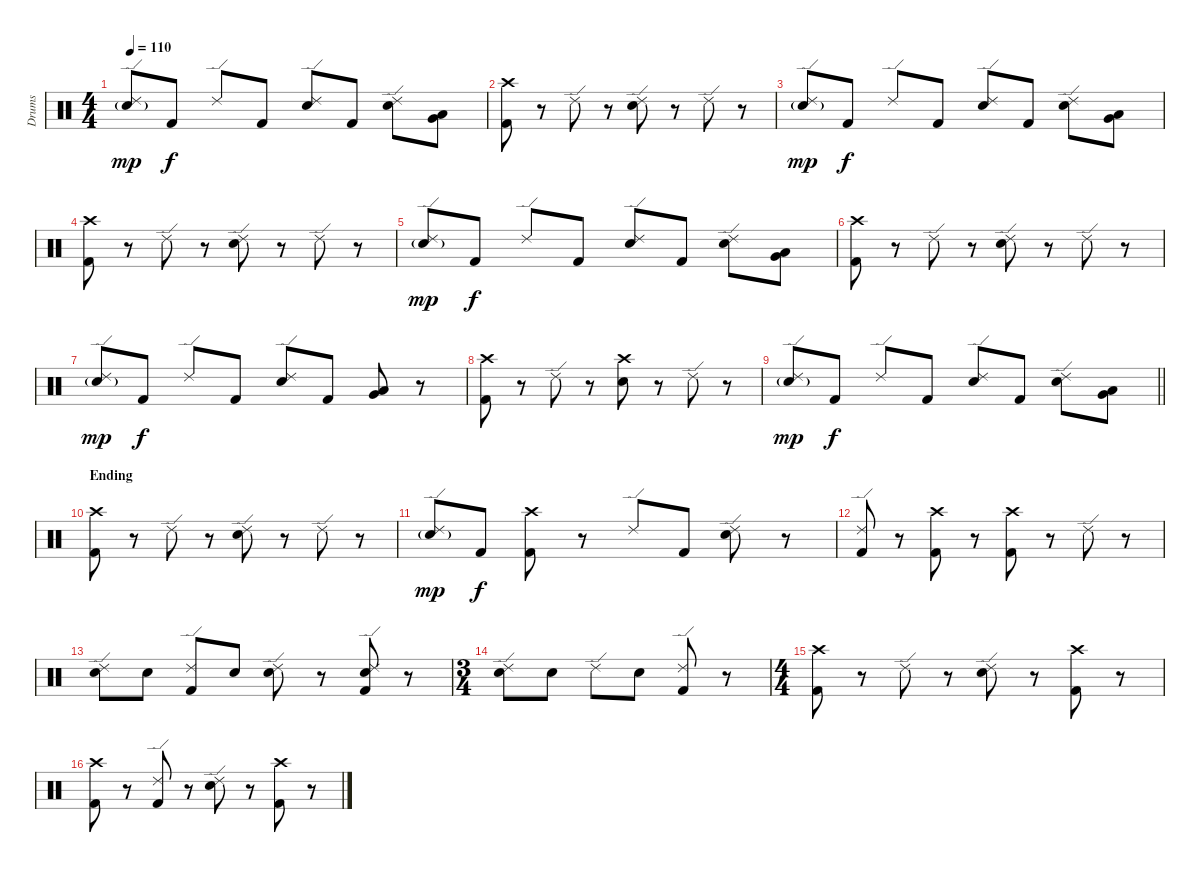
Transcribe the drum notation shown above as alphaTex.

\track ("Drums" "Drums") {instrument percussion}
\staff {score}
\articulation defaults
\ts (4 4)
\tempo 110
\clef neutral
\ks c
("Ride (edge) 2" "Snare (hit) 2"{g}).8{dy mp} "Kick (hit) 2".8{dy f} "Ride (edge) 2".8 "Kick (hit) 2".8 ("Ride (edge) 2" "Snare (hit) 2").8 "Kick (hit) 2".8 ("Ride (edge) 2" "Snare (hit) 2").8 ("Very Low Tom (hit)" "Low Floor Tom (hit)").8 |
("Crash high (hit)" "Kick (hit) 2").8 r.8 "Ride (edge) 2".8 r.8 ("Ride (edge) 2" "Snare (hit) 2").8 r.8 "Ride (edge) 2".8 r.8 |
("Ride (edge) 2" "Snare (hit) 2"{g}).8{dy mp} "Kick (hit) 2".8{dy f} "Ride (edge) 2".8 "Kick (hit) 2".8 ("Ride (edge) 2" "Snare (hit) 2").8 "Kick (hit) 2".8 ("Ride (edge) 2" "Snare (hit) 2").8 ("Very Low Tom (hit)" "Low Floor Tom (hit)").8 |
("Crash high (hit)" "Kick (hit) 2").8 r.8 "Ride (edge) 2".8 r.8 ("Ride (edge) 2" "Snare (hit) 2").8 r.8 "Ride (edge) 2".8 r.8 |
("Ride (edge) 2" "Snare (hit) 2"{g}).8{dy mp} "Kick (hit) 2".8{dy f} "Ride (edge) 2".8 "Kick (hit) 2".8 ("Ride (edge) 2" "Snare (hit) 2").8 "Kick (hit) 2".8 ("Ride (edge) 2" "Snare (hit) 2").8 ("Very Low Tom (hit)" "Low Floor Tom (hit)").8 |
("Crash high (hit)" "Kick (hit) 2").8 r.8 "Ride (edge) 2".8 r.8 ("Ride (edge) 2" "Snare (hit) 2").8 r.8 "Ride (edge) 2".8 r.8 |
("Ride (edge) 2" "Snare (hit) 2"{g}).8{dy mp} "Kick (hit) 2".8{dy f} "Ride (edge) 2".8 "Kick (hit) 2".8 ("Ride (edge) 2" "Snare (hit) 2").8 "Kick (hit) 2".8 ("Very Low Tom (hit)" "Low Floor Tom (hit)").8 r.8 |
("Crash high (hit)" "Kick (hit) 2").8 r.8 "Ride (edge) 2".8 r.8 ("Crash high (hit)" "Snare (hit) 2").8 r.8 "Ride (edge) 2".8 r.8 |
\barLineRight lightlight
("Ride (edge) 2" "Snare (hit) 2"{g}).8{dy mp} "Kick (hit) 2".8{dy f} "Ride (edge) 2".8 "Kick (hit) 2".8 ("Ride (edge) 2" "Snare (hit) 2").8 "Kick (hit) 2".8 ("Ride (edge) 2" "Snare (hit) 2").8 ("Very Low Tom (hit)" "Low Floor Tom (hit)").8 |
\section ("" "Ending")
("Crash high (hit)" "Kick (hit) 2").8 r.8 "Ride (edge) 2".8 r.8 ("Ride (edge) 2" "Snare (hit) 2").8 r.8 "Ride (edge) 2".8 r.8 |
("Ride (edge) 2" "Snare (hit) 2"{g}).8{dy mp} "Kick (hit) 2".8{dy f} ("Crash high (hit)" "Kick (hit) 2").8 r.8 "Ride (edge) 2".8 "Kick (hit) 2".8 ("Ride (edge) 2" "Snare (hit) 2").8 r.8 |
("Ride (edge) 2" "Kick (hit) 2").8 r.8 ("Crash high (hit)" "Kick (hit) 2").8 r.8 ("Crash high (hit)" "Kick (hit) 2").8 r.8 "Ride (edge) 2".8 r.8 |
("Ride (edge) 2" "Snare (hit) 2").8 "Snare (hit) 2".8 ("Ride (edge) 2" "Kick (hit) 2").8 "Snare (hit) 2".8 ("Ride (edge) 2" "Snare (hit) 2").8 r.8 ("Ride (edge) 2" "Snare (hit) 2" "Kick (hit) 2").8 r.8 |
\ts (3 4)
("Ride (edge) 2" "Snare (hit) 2").8 "Snare (hit) 2".8 "Ride (edge) 2".8 "Snare (hit) 2".8 ("Ride (edge) 2" "Kick (hit) 2").8 r.8 |
\ts (4 4)
("Crash high (hit)" "Kick (hit) 2").8 r.8 "Ride (edge) 2".8 r.8 ("Ride (edge) 2" "Snare (hit) 2").8 r.8 ("Crash high (hit)" "Kick (hit) 2").8 r.8 |
("Crash high (hit)" "Kick (hit) 2").8 r.8 ("Ride (edge) 2" "Kick (hit) 2").8 r.8 ("Ride (edge) 2" "Snare (hit) 2").8 r.8 ("Crash high (hit)" "Kick (hit) 2").8 r.8
